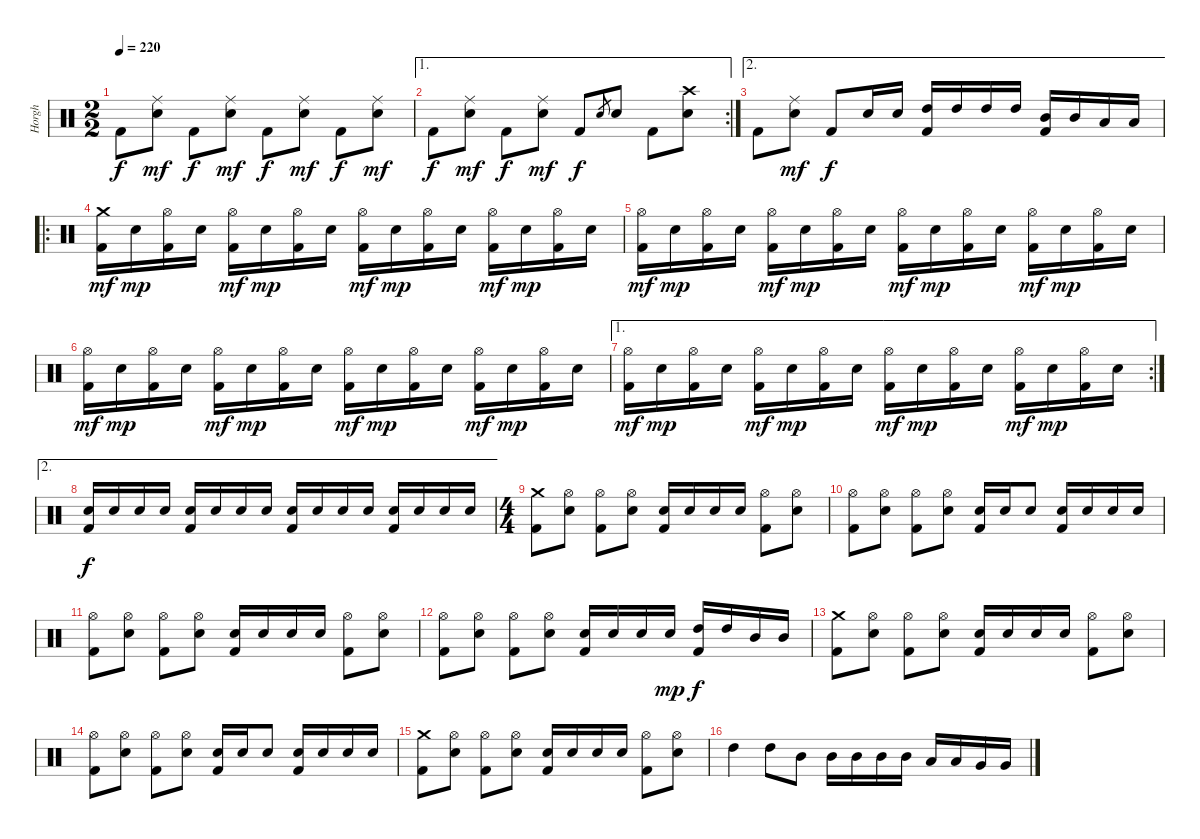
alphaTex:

\track ("Horgh" "Horgh") {instrument percussion}
\staff {score}
\articulation defaults
\ts (2 2)
\tempo 220
\clef neutral
\ks c "Kick (hit) 2".8{dy f}
("Ride (middle)" "Electric Snare (hit)").8{dy mf} "Kick (hit) 2".8{dy f} ("Ride (middle)" "Electric Snare (hit)").8{dy mf} "Kick (hit) 2".8{dy f} ("Ride (middle)" "Electric Snare (hit)").8{dy mf} "Kick (hit) 2".8{dy f} ("Ride (middle)" "Electric Snare (hit)").8{dy mf} |
\ae 1
\rc 2 "Kick (hit) 2".8{dy f}
("Ride (middle)" "Electric Snare (hit)").8{dy mf} "Kick (hit) 2".8{dy f} ("Ride (middle)" "Electric Snare (hit)").8{dy mf} "Kick (hit) 2".8{dy f} "Electric Snare (hit)".8{gr} "Electric Snare (hit)".8 "Kick (hit) 2".8 ("Crash high (hit)" "Electric Snare (hit)").8 |
\ae 2 "Kick (hit) 2".8
("Ride (middle)" "Electric Snare (hit)").8{dy mf} "Kick (hit) 2".8{dy f} "Electric Snare (hit)".16 "Electric Snare (hit)".16 ("High Tom (hit)" "Kick (hit) 2").16 "High Tom (hit)".16 "High Tom (hit)".16 "High Tom (hit)".16 ("Mid Tom (hit)" "Kick (hit) 2").16 "Mid Tom (hit)".16 "Low Tom (hit)".16 "Low Tom (hit)".16 |
\ro
("Crash medium (hit)" "Kick (hit) 2").16{dy mf} "Electric Snare (hit)".16{dy mp} ("Hi-Hat (open)" "Kick (hit) 2").16 "Electric Snare (hit)".16 ("Hi-Hat (open)" "Kick (hit) 2").16{dy mf} "Electric Snare (hit)".16{dy mp} ("Hi-Hat (open)" "Kick (hit) 2").16 "Electric Snare (hit)".16 ("Hi-Hat (open)" "Kick (hit) 2").16{dy mf} "Electric Snare (hit)".16{dy mp} ("Hi-Hat (open)" "Kick (hit) 2").16 "Electric Snare (hit)".16 ("Hi-Hat (open)" "Kick (hit) 2").16{dy mf} "Electric Snare (hit)".16{dy mp} ("Hi-Hat (open)" "Kick (hit) 2").16 "Electric Snare (hit)".16 |
("Hi-Hat (open)" "Kick (hit) 2").16{dy mf} "Electric Snare (hit)".16{dy mp} ("Hi-Hat (open)" "Kick (hit) 2").16 "Electric Snare (hit)".16 ("Hi-Hat (open)" "Kick (hit) 2").16{dy mf} "Electric Snare (hit)".16{dy mp} ("Hi-Hat (open)" "Kick (hit) 2").16 "Electric Snare (hit)".16 ("Hi-Hat (open)" "Kick (hit) 2").16{dy mf} "Electric Snare (hit)".16{dy mp} ("Hi-Hat (open)" "Kick (hit) 2").16 "Electric Snare (hit)".16 ("Hi-Hat (open)" "Kick (hit) 2").16{dy mf} "Electric Snare (hit)".16{dy mp} ("Hi-Hat (open)" "Kick (hit) 2").16 "Electric Snare (hit)".16 |
("Hi-Hat (open)" "Kick (hit) 2").16{dy mf} "Electric Snare (hit)".16{dy mp} ("Hi-Hat (open)" "Kick (hit) 2").16 "Electric Snare (hit)".16 ("Hi-Hat (open)" "Kick (hit) 2").16{dy mf} "Electric Snare (hit)".16{dy mp} ("Hi-Hat (open)" "Kick (hit) 2").16 "Electric Snare (hit)".16 ("Hi-Hat (open)" "Kick (hit) 2").16{dy mf} "Electric Snare (hit)".16{dy mp} ("Hi-Hat (open)" "Kick (hit) 2").16 "Electric Snare (hit)".16 ("Hi-Hat (open)" "Kick (hit) 2").16{dy mf} "Electric Snare (hit)".16{dy mp} ("Hi-Hat (open)" "Kick (hit) 2").16 "Electric Snare (hit)".16 |
\ae 1
\rc 2
("Hi-Hat (open)" "Kick (hit) 2").16{dy mf} "Electric Snare (hit)".16{dy mp} ("Hi-Hat (open)" "Kick (hit) 2").16 "Electric Snare (hit)".16 ("Hi-Hat (open)" "Kick (hit) 2").16{dy mf} "Electric Snare (hit)".16{dy mp} ("Hi-Hat (open)" "Kick (hit) 2").16 "Electric Snare (hit)".16 ("Hi-Hat (open)" "Kick (hit) 2").16{dy mf} "Electric Snare (hit)".16{dy mp} ("Hi-Hat (open)" "Kick (hit) 2").16 "Electric Snare (hit)".16 ("Hi-Hat (open)" "Kick (hit) 2").16{dy mf} "Electric Snare (hit)".16{dy mp} ("Hi-Hat (open)" "Kick (hit) 2").16 "Electric Snare (hit)".16 |
\ae 2
("Electric Snare (hit)" "Kick (hit) 2").16{dy f} "Electric Snare (hit)".16 "Electric Snare (hit)".16 "Electric Snare (hit)".16 ("Electric Snare (hit)" "Kick (hit) 2").16 "Electric Snare (hit)".16 "Electric Snare (hit)".16 "Electric Snare (hit)".16 ("Electric Snare (hit)" "Kick (hit) 2").16 "Electric Snare (hit)".16 "Electric Snare (hit)".16 "Electric Snare (hit)".16 ("Electric Snare (hit)" "Kick (hit) 2").16 "Electric Snare (hit)".16 "Electric Snare (hit)".16 "Electric Snare (hit)".16 |
\ts (4 4)
("Crash medium (hit)" "Kick (hit) 2").8 ("Hi-Hat (open)" "Electric Snare (hit)").8 ("Hi-Hat (open)" "Kick (hit) 2").8 ("Hi-Hat (open)" "Electric Snare (hit)").8 ("Electric Snare (hit)" "Kick (hit) 2").16 "Electric Snare (hit)".16 "Electric Snare (hit)".16 "Electric Snare (hit)".16 ("Hi-Hat (open)" "Kick (hit) 2").8 ("Hi-Hat (open)" "Electric Snare (hit)").8 |
("Hi-Hat (open)" "Kick (hit) 2").8 ("Hi-Hat (open)" "Electric Snare (hit)").8 ("Hi-Hat (open)" "Kick (hit) 2").8 ("Hi-Hat (open)" "Electric Snare (hit)").8 ("Electric Snare (hit)" "Kick (hit) 2").16 "Electric Snare (hit)".16 "Electric Snare (hit)".8 ("Electric Snare (hit)" "Kick (hit) 2").16 "Electric Snare (hit)".16 "Electric Snare (hit)".16 "Electric Snare (hit)".16 |
("Hi-Hat (open)" "Kick (hit) 2").8 ("Hi-Hat (open)" "Electric Snare (hit)").8 ("Hi-Hat (open)" "Kick (hit) 2").8 ("Hi-Hat (open)" "Electric Snare (hit)").8 ("Electric Snare (hit)" "Kick (hit) 2").16 "Electric Snare (hit)".16 "Electric Snare (hit)".16 "Electric Snare (hit)".16 ("Hi-Hat (open)" "Kick (hit) 2").8 ("Hi-Hat (open)" "Electric Snare (hit)").8 |
("Hi-Hat (open)" "Kick (hit) 2").8 ("Hi-Hat (open)" "Electric Snare (hit)").8 ("Hi-Hat (open)" "Kick (hit) 2").8 ("Hi-Hat (open)" "Electric Snare (hit)").8 ("Electric Snare (hit)" "Kick (hit) 2").16 "Electric Snare (hit)".16 "Electric Snare (hit)".16 "Electric Snare (hit)".16{dy mp} ("High Tom (hit)" "Kick (hit) 2").16{dy f} "High Tom (hit)".16 "Mid Tom (hit)".16 "Mid Tom (hit)".16 |
("Crash medium (hit)" "Kick (hit) 2").8 ("Hi-Hat (open)" "Electric Snare (hit)").8 ("Hi-Hat (open)" "Kick (hit) 2").8 ("Hi-Hat (open)" "Electric Snare (hit)").8 ("Electric Snare (hit)" "Kick (hit) 2").16 "Electric Snare (hit)".16 "Electric Snare (hit)".16 "Electric Snare (hit)".16 ("Hi-Hat (open)" "Kick (hit) 2").8 ("Hi-Hat (open)" "Electric Snare (hit)").8 |
("Hi-Hat (open)" "Kick (hit) 2").8 ("Hi-Hat (open)" "Electric Snare (hit)").8 ("Hi-Hat (open)" "Kick (hit) 2").8 ("Hi-Hat (open)" "Electric Snare (hit)").8 ("Electric Snare (hit)" "Kick (hit) 2").16 "Electric Snare (hit)".16 "Electric Snare (hit)".8 ("Electric Snare (hit)" "Kick (hit) 2").16 "Electric Snare (hit)".16 "Electric Snare (hit)".16 "Electric Snare (hit)".16 |
("Crash medium (hit)" "Kick (hit) 2").8 ("Hi-Hat (open)" "Electric Snare (hit)").8 ("Hi-Hat (open)" "Kick (hit) 2").8 ("Hi-Hat (open)" "Electric Snare (hit)").8 ("Electric Snare (hit)" "Kick (hit) 2").16 "Electric Snare (hit)".16 "Electric Snare (hit)".16 "Electric Snare (hit)".16 ("Hi-Hat (open)" "Kick (hit) 2").8 ("Hi-Hat (open)" "Electric Snare (hit)").8 |
"High Tom (hit)".4 "High Tom (hit)".8 "Mid Tom (hit)".8 "Mid Tom (hit)".16 "Mid Tom (hit)".16 "Mid Tom (hit)".16 "Mid Tom (hit)".16 "Low Tom (hit)".16 "Low Tom (hit)".16 "Very Low Tom (hit)".16 "Very Low Tom (hit)".16
